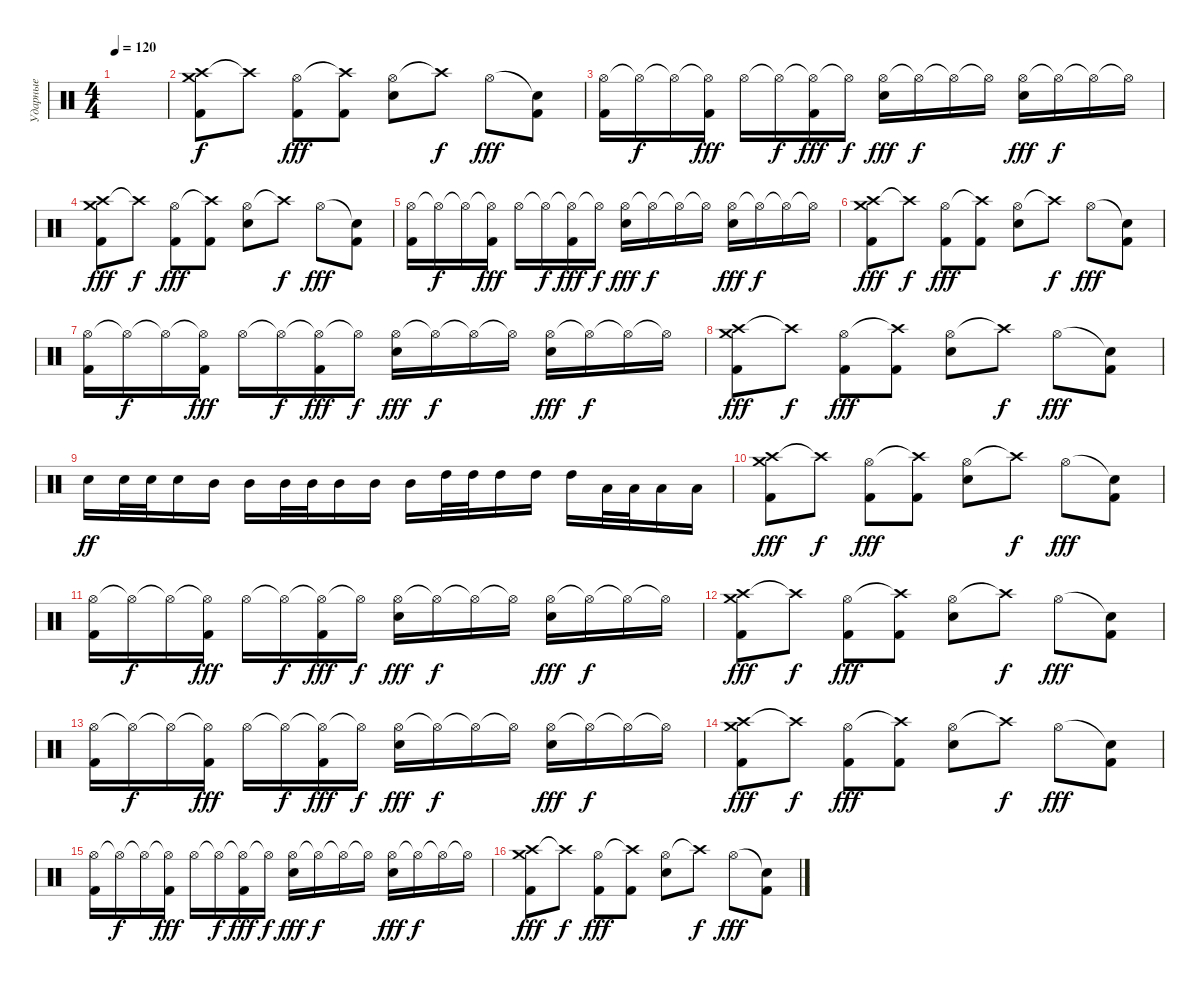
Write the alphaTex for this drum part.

\track ("Ударные" "Ударные") {instrument percussion}
\staff {score}
\articulation defaults
\ts (4 4)
\tempo 120
\clef neutral
\ks c
|
("Crash high (hit)" "Crash medium (hit)" "Kick (hit) 2").8 "Crash high (hit)"{t}.8{dy f} ("Hi-Hat (open)" "Kick (hit) 2").8{dy fff} ("Crash high (hit)"{t} "Kick (hit) 2").8 ("Hi-Hat (open)" "Electric Snare (hit)").8 "Crash high (hit)"{t}.8{dy f} "Hi-Hat (open)".8{dy fff} ("Snare (hit)"{t} "Kick (hit) 2").8 |
("Hi-Hat (open)" "Kick (hit) 2").16 "Hi-Hat (open)"{t}.16{dy f} "Hi-Hat (open)"{t}.16 ("Hi-Hat (open)"{t} "Kick (hit) 2").16{dy fff} "Hi-Hat (open)".16 "Hi-Hat (open)"{t}.16{dy f} ("Hi-Hat (open)"{t} "Kick (hit) 2").16{dy fff} "Hi-Hat (open)"{t}.16{dy f} ("Hi-Hat (open)" "Electric Snare (hit)").16{dy fff} "Hi-Hat (open)"{t}.16{dy f} "Hi-Hat (open)"{t}.16 "Hi-Hat (open)"{t}.16 ("Hi-Hat (open)" "Electric Snare (hit)").16{dy fff} "Hi-Hat (open)"{t}.16{dy f} "Hi-Hat (open)"{t}.16 "Hi-Hat (open)"{t}.16 |
("Crash high (hit)" "Crash medium (hit)" "Kick (hit) 2").8{dy fff} "Crash high (hit)"{t}.8{dy f} ("Hi-Hat (open)" "Kick (hit) 2").8{dy fff} ("Crash high (hit)"{t} "Kick (hit) 2").8 ("Hi-Hat (open)" "Electric Snare (hit)").8 "Crash high (hit)"{t}.8{dy f} "Hi-Hat (open)".8{dy fff} ("Snare (hit)"{t} "Kick (hit) 2").8 |
("Hi-Hat (open)" "Kick (hit) 2").16 "Hi-Hat (open)"{t}.16{dy f} "Hi-Hat (open)"{t}.16 ("Hi-Hat (open)"{t} "Kick (hit) 2").16{dy fff} "Hi-Hat (open)".16 "Hi-Hat (open)"{t}.16{dy f} ("Hi-Hat (open)"{t} "Kick (hit) 2").16{dy fff} "Hi-Hat (open)"{t}.16{dy f} ("Hi-Hat (open)" "Electric Snare (hit)").16{dy fff} "Hi-Hat (open)"{t}.16{dy f} "Hi-Hat (open)"{t}.16 "Hi-Hat (open)"{t}.16 ("Hi-Hat (open)" "Electric Snare (hit)").16{dy fff} "Hi-Hat (open)"{t}.16{dy f} "Hi-Hat (open)"{t}.16 "Hi-Hat (open)"{t}.16 |
("Crash high (hit)" "Crash medium (hit)" "Kick (hit) 2").8{dy fff} "Crash high (hit)"{t}.8{dy f} ("Hi-Hat (open)" "Kick (hit) 2").8{dy fff} ("Crash high (hit)"{t} "Kick (hit) 2").8 ("Hi-Hat (open)" "Electric Snare (hit)").8 "Crash high (hit)"{t}.8{dy f} "Hi-Hat (open)".8{dy fff} ("Snare (hit)"{t} "Kick (hit) 2").8 |
("Hi-Hat (open)" "Kick (hit) 2").16 "Hi-Hat (open)"{t}.16{dy f} "Hi-Hat (open)"{t}.16 ("Hi-Hat (open)"{t} "Kick (hit) 2").16{dy fff} "Hi-Hat (open)".16 "Hi-Hat (open)"{t}.16{dy f} ("Hi-Hat (open)"{t} "Kick (hit) 2").16{dy fff} "Hi-Hat (open)"{t}.16{dy f} ("Hi-Hat (open)" "Electric Snare (hit)").16{dy fff} "Hi-Hat (open)"{t}.16{dy f} "Hi-Hat (open)"{t}.16 "Hi-Hat (open)"{t}.16 ("Hi-Hat (open)" "Electric Snare (hit)").16{dy fff} "Hi-Hat (open)"{t}.16{dy f} "Hi-Hat (open)"{t}.16 "Hi-Hat (open)"{t}.16 |
("Crash high (hit)" "Crash medium (hit)" "Kick (hit) 2").8{dy fff} "Crash high (hit)"{t}.8{dy f} ("Hi-Hat (open)" "Kick (hit) 2").8{dy fff} ("Crash high (hit)"{t} "Kick (hit) 2").8 ("Hi-Hat (open)" "Electric Snare (hit)").8 "Crash high (hit)"{t}.8{dy f} "Hi-Hat (open)".8{dy fff} ("Snare (hit)"{t} "Kick (hit) 2").8 |
"Electric Snare (hit)".16{dy ff} "Electric Snare (hit)".32 "Electric Snare (hit)".32 "Electric Snare (hit)".16 "Mid Tom (hit)".16 "Mid Tom (hit)".16 "Mid Tom (hit)".32 "Mid Tom (hit)".32 "Mid Tom (hit)".16 "Mid Tom (hit)".16 "Mid Tom (hit)".16 "High Tom (hit)".32 "High Tom (hit)".32 "High Tom (hit)".16 "High Tom (hit)".16 "High Tom (hit)".16 "Low Tom (hit)".32 "Low Tom (hit)".32 "Low Tom (hit)".16 "Low Tom (hit)".16 |
("Crash high (hit)" "Crash medium (hit)" "Kick (hit) 2").8{dy fff} "Crash high (hit)"{t}.8{dy f} ("Hi-Hat (open)" "Kick (hit) 2").8{dy fff} ("Crash high (hit)"{t} "Kick (hit) 2").8 ("Hi-Hat (open)" "Electric Snare (hit)").8 "Crash high (hit)"{t}.8{dy f} "Hi-Hat (open)".8{dy fff} ("Snare (hit)"{t} "Kick (hit) 2").8 |
("Hi-Hat (open)" "Kick (hit) 2").16 "Hi-Hat (open)"{t}.16{dy f} "Hi-Hat (open)"{t}.16 ("Hi-Hat (open)"{t} "Kick (hit) 2").16{dy fff} "Hi-Hat (open)".16 "Hi-Hat (open)"{t}.16{dy f} ("Hi-Hat (open)"{t} "Kick (hit) 2").16{dy fff} "Hi-Hat (open)"{t}.16{dy f} ("Hi-Hat (open)" "Electric Snare (hit)").16{dy fff} "Hi-Hat (open)"{t}.16{dy f} "Hi-Hat (open)"{t}.16 "Hi-Hat (open)"{t}.16 ("Hi-Hat (open)" "Electric Snare (hit)").16{dy fff} "Hi-Hat (open)"{t}.16{dy f} "Hi-Hat (open)"{t}.16 "Hi-Hat (open)"{t}.16 |
("Crash high (hit)" "Crash medium (hit)" "Kick (hit) 2").8{dy fff} "Crash high (hit)"{t}.8{dy f} ("Hi-Hat (open)" "Kick (hit) 2").8{dy fff} ("Crash high (hit)"{t} "Kick (hit) 2").8 ("Hi-Hat (open)" "Electric Snare (hit)").8 "Crash high (hit)"{t}.8{dy f} "Hi-Hat (open)".8{dy fff} ("Snare (hit)"{t} "Kick (hit) 2").8 |
("Hi-Hat (open)" "Kick (hit) 2").16 "Hi-Hat (open)"{t}.16{dy f} "Hi-Hat (open)"{t}.16 ("Hi-Hat (open)"{t} "Kick (hit) 2").16{dy fff} "Hi-Hat (open)".16 "Hi-Hat (open)"{t}.16{dy f} ("Hi-Hat (open)"{t} "Kick (hit) 2").16{dy fff} "Hi-Hat (open)"{t}.16{dy f} ("Hi-Hat (open)" "Electric Snare (hit)").16{dy fff} "Hi-Hat (open)"{t}.16{dy f} "Hi-Hat (open)"{t}.16 "Hi-Hat (open)"{t}.16 ("Hi-Hat (open)" "Electric Snare (hit)").16{dy fff} "Hi-Hat (open)"{t}.16{dy f} "Hi-Hat (open)"{t}.16 "Hi-Hat (open)"{t}.16 |
("Crash high (hit)" "Crash medium (hit)" "Kick (hit) 2").8{dy fff} "Crash high (hit)"{t}.8{dy f} ("Hi-Hat (open)" "Kick (hit) 2").8{dy fff} ("Crash high (hit)"{t} "Kick (hit) 2").8 ("Hi-Hat (open)" "Electric Snare (hit)").8 "Crash high (hit)"{t}.8{dy f} "Hi-Hat (open)".8{dy fff} ("Snare (hit)"{t} "Kick (hit) 2").8 |
("Hi-Hat (open)" "Kick (hit) 2").16 "Hi-Hat (open)"{t}.16{dy f} "Hi-Hat (open)"{t}.16 ("Hi-Hat (open)"{t} "Kick (hit) 2").16{dy fff} "Hi-Hat (open)".16 "Hi-Hat (open)"{t}.16{dy f} ("Hi-Hat (open)"{t} "Kick (hit) 2").16{dy fff} "Hi-Hat (open)"{t}.16{dy f} ("Hi-Hat (open)" "Electric Snare (hit)").16{dy fff} "Hi-Hat (open)"{t}.16{dy f} "Hi-Hat (open)"{t}.16 "Hi-Hat (open)"{t}.16 ("Hi-Hat (open)" "Electric Snare (hit)").16{dy fff} "Hi-Hat (open)"{t}.16{dy f} "Hi-Hat (open)"{t}.16 "Hi-Hat (open)"{t}.16 |
("Crash high (hit)" "Crash medium (hit)" "Kick (hit) 2").8{dy fff} "Crash high (hit)"{t}.8{dy f} ("Hi-Hat (open)" "Kick (hit) 2").8{dy fff} ("Crash high (hit)"{t} "Kick (hit) 2").8 ("Hi-Hat (open)" "Electric Snare (hit)").8 "Crash high (hit)"{t}.8{dy f} "Hi-Hat (open)".8{dy fff} ("Snare (hit)"{t} "Kick (hit) 2").8
